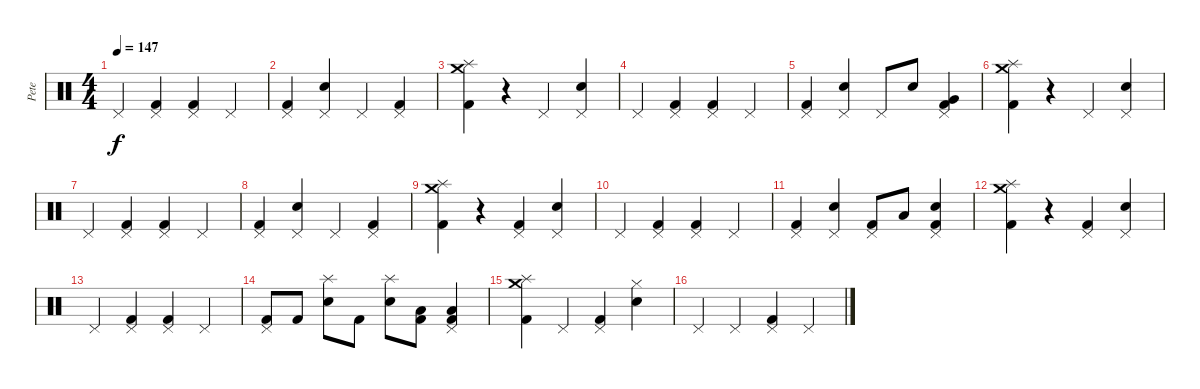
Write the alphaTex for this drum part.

\track ("Pete" "Pete") {instrument percussion}
\staff {score}
\articulation defaults
\ts (4 4)
\tempo 147
\clef neutral
\ks c "Pedal Hi-Hat (hit)".4{dy f}
("Pedal Hi-Hat (hit)" "Kick (hit) 2").4 ("Pedal Hi-Hat (hit)" "Kick (hit) 2").4 "Pedal Hi-Hat (hit)".4 |
("Pedal Hi-Hat (hit)" "Kick (hit) 2").4 ("Pedal Hi-Hat (hit)" "Electric Snare (hit)").4 "Pedal Hi-Hat (hit)".4 ("Pedal Hi-Hat (hit)" "Kick (hit) 2").4 |
("Crash medium (hit)" "Splash (hit)" "Kick (hit) 2").4 r.4 "Pedal Hi-Hat (hit)".4 ("Pedal Hi-Hat (hit)" "Electric Snare (hit)").4 |
"Pedal Hi-Hat (hit)".4 ("Pedal Hi-Hat (hit)" "Kick (hit) 2").4 ("Pedal Hi-Hat (hit)" "Kick (hit) 2").4 "Pedal Hi-Hat (hit)".4 |
("Pedal Hi-Hat (hit)" "Kick (hit) 2").4 ("Pedal Hi-Hat (hit)" "Electric Snare (hit)").4 "Pedal Hi-Hat (hit)".8 "Electric Snare (hit)".8 ("Pedal Hi-Hat (hit)" "Very Low Tom (hit)" "Kick (hit) 2").4 |
("Crash medium (hit)" "Splash (hit)" "Kick (hit) 2").4 r.4 "Pedal Hi-Hat (hit)".4 ("Pedal Hi-Hat (hit)" "Electric Snare (hit)").4 |
"Pedal Hi-Hat (hit)".4 ("Pedal Hi-Hat (hit)" "Kick (hit) 2").4 ("Pedal Hi-Hat (hit)" "Kick (hit) 2").4 "Pedal Hi-Hat (hit)".4 |
("Pedal Hi-Hat (hit)" "Kick (hit) 2").4 ("Pedal Hi-Hat (hit)" "Electric Snare (hit)").4 "Pedal Hi-Hat (hit)".4 ("Pedal Hi-Hat (hit)" "Kick (hit) 2").4 |
("Crash medium (hit)" "Splash (hit)" "Kick (hit) 2").4 r.4 ("Pedal Hi-Hat (hit)" "Kick (hit) 2").4 ("Pedal Hi-Hat (hit)" "Electric Snare (hit)").4 |
"Pedal Hi-Hat (hit)".4 ("Pedal Hi-Hat (hit)" "Kick (hit) 2").4 ("Pedal Hi-Hat (hit)" "Kick (hit) 2").4 "Pedal Hi-Hat (hit)".4 |
("Pedal Hi-Hat (hit)" "Kick (hit) 2").4 ("Pedal Hi-Hat (hit)" "Electric Snare (hit)").4 ("Pedal Hi-Hat (hit)" "Kick (hit) 2").8 "Low Tom (hit)".8 ("Pedal Hi-Hat (hit)" "Electric Snare (hit)" "Kick (hit) 2").4 |
("Crash medium (hit)" "Splash (hit)" "Kick (hit) 2").4 r.4 ("Pedal Hi-Hat (hit)" "Kick (hit) 2").4 ("Pedal Hi-Hat (hit)" "Electric Snare (hit)").4 |
"Pedal Hi-Hat (hit)".4 ("Pedal Hi-Hat (hit)" "Kick (hit) 2").4 ("Pedal Hi-Hat (hit)" "Kick (hit) 2").4 "Pedal Hi-Hat (hit)".4 |
("Pedal Hi-Hat (hit)" "Kick (hit) 2").8 "Kick (hit) 2".8 ("Splash (hit)" "Electric Snare (hit)").8 "Kick (hit) 2".8 ("Splash (hit)" "Electric Snare (hit)").8 ("Low Tom (hit)" "Kick (hit) 2").8 ("Pedal Hi-Hat (hit)" "Low Tom (hit)" "Kick (hit) 2").4 |
("Crash medium (hit)" "Splash (hit)" "Kick (hit) 2").4 "Pedal Hi-Hat (hit)".4 ("Pedal Hi-Hat (hit)" "Kick (hit) 2").4 ("Hi-Hat (closed)" "Electric Snare (hit)").4 |
"Pedal Hi-Hat (hit)".4 "Pedal Hi-Hat (hit)".4 ("Pedal Hi-Hat (hit)" "Kick (hit) 2").4 "Pedal Hi-Hat (hit)".4
